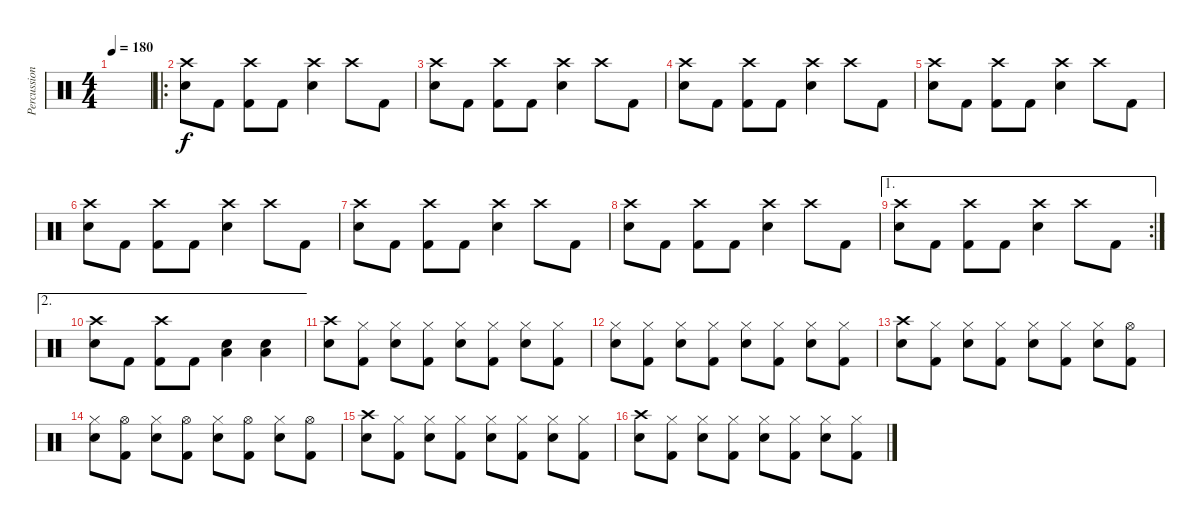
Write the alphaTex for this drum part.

\track ("Percussions" "Percussion") {instrument percussion}
\staff {score}
\articulation defaults
\ts (4 4)
\tempo 180
\clef neutral
\ks c
|
\ro
("Crash high (hit)" "Snare (hit) 2").8 "Kick (hit) 2".8 ("Crash high (hit)" "Kick (hit) 2").8 "Kick (hit) 2".8 ("Crash high (hit)" "Snare (hit) 2").4 "Crash high (hit)".8 "Kick (hit) 2".8 |
("Crash high (hit)" "Snare (hit) 2").8 "Kick (hit) 2".8 ("Crash high (hit)" "Kick (hit) 2").8 "Kick (hit) 2".8 ("Crash high (hit)" "Snare (hit) 2").4 "Crash high (hit)".8 "Kick (hit) 2".8 |
("Crash high (hit)" "Snare (hit) 2").8 "Kick (hit) 2".8 ("Crash high (hit)" "Kick (hit) 2").8 "Kick (hit) 2".8 ("Crash high (hit)" "Snare (hit) 2").4 "Crash high (hit)".8 "Kick (hit) 2".8 |
("Crash high (hit)" "Snare (hit) 2").8 "Kick (hit) 2".8 ("Crash high (hit)" "Kick (hit) 2").8 "Kick (hit) 2".8 ("Crash high (hit)" "Snare (hit) 2").4 "Crash high (hit)".8 "Kick (hit) 2".8 |
("Crash high (hit)" "Snare (hit) 2").8 "Kick (hit) 2".8 ("Crash high (hit)" "Kick (hit) 2").8 "Kick (hit) 2".8 ("Crash high (hit)" "Snare (hit) 2").4 "Crash high (hit)".8 "Kick (hit) 2".8 |
("Crash high (hit)" "Snare (hit) 2").8 "Kick (hit) 2".8 ("Crash high (hit)" "Kick (hit) 2").8 "Kick (hit) 2".8 ("Crash high (hit)" "Snare (hit) 2").4 "Crash high (hit)".8 "Kick (hit) 2".8 |
("Crash high (hit)" "Snare (hit) 2").8 "Kick (hit) 2".8 ("Crash high (hit)" "Kick (hit) 2").8 "Kick (hit) 2".8 ("Crash high (hit)" "Snare (hit) 2").4 "Crash high (hit)".8 "Kick (hit) 2".8 |
\ae 1
\rc 2
("Crash high (hit)" "Snare (hit) 2").8 "Kick (hit) 2".8 ("Crash high (hit)" "Kick (hit) 2").8 "Kick (hit) 2".8 ("Crash high (hit)" "Snare (hit) 2").4 "Crash high (hit)".8 "Kick (hit) 2".8 |
\ae 2
("Crash high (hit)" "Snare (hit) 2").8 "Kick (hit) 2".8 ("Crash high (hit)" "Kick (hit) 2").8 "Kick (hit) 2".8 ("Low Floor Tom (hit)" "Snare (hit) 2").4 ("Low Floor Tom (hit)" "Snare (hit) 2").4 |
("Crash high (hit)" "Snare (hit) 2").8 ("Hi-Hat (closed)" "Kick (hit) 2").8 ("Hi-Hat (closed)" "Snare (hit) 2").8 ("Hi-Hat (closed)" "Kick (hit) 2").8 ("Hi-Hat (closed)" "Snare (hit) 2").8 ("Hi-Hat (closed)" "Kick (hit) 2").8 ("Hi-Hat (closed)" "Snare (hit) 2").8 ("Hi-Hat (closed)" "Kick (hit) 2").8 |
("Hi-Hat (closed)" "Snare (hit) 2").8 ("Hi-Hat (closed)" "Kick (hit) 2").8 ("Hi-Hat (closed)" "Snare (hit) 2").8 ("Hi-Hat (closed)" "Kick (hit) 2").8 ("Hi-Hat (closed)" "Snare (hit) 2").8 ("Hi-Hat (closed)" "Kick (hit) 2").8 ("Hi-Hat (closed)" "Snare (hit) 2").8 ("Hi-Hat (closed)" "Kick (hit) 2").8 |
("Crash high (hit)" "Snare (hit) 2").8 ("Hi-Hat (closed)" "Kick (hit) 2").8 ("Hi-Hat (closed)" "Snare (hit) 2").8 ("Hi-Hat (closed)" "Kick (hit) 2").8 ("Hi-Hat (closed)" "Snare (hit) 2").8 ("Hi-Hat (closed)" "Kick (hit) 2").8 ("Hi-Hat (closed)" "Snare (hit) 2").8 ("Hi-Hat (open)" "Kick (hit) 2").8 |
("Hi-Hat (closed)" "Snare (hit) 2").8 ("Hi-Hat (open)" "Kick (hit) 2").8 ("Hi-Hat (closed)" "Snare (hit) 2").8 ("Hi-Hat (open)" "Kick (hit) 2").8 ("Hi-Hat (closed)" "Snare (hit) 2").8 ("Hi-Hat (open)" "Kick (hit) 2").8 ("Hi-Hat (closed)" "Snare (hit) 2").8 ("Hi-Hat (open)" "Kick (hit) 2").8 |
("Crash high (hit)" "Snare (hit) 2").8 ("Hi-Hat (closed)" "Kick (hit) 2").8 ("Hi-Hat (closed)" "Snare (hit) 2").8 ("Hi-Hat (closed)" "Kick (hit) 2").8 ("Hi-Hat (closed)" "Snare (hit) 2").8 ("Hi-Hat (closed)" "Kick (hit) 2").8 ("Hi-Hat (closed)" "Snare (hit) 2").8 ("Hi-Hat (closed)" "Kick (hit) 2").8 |
("Crash high (hit)" "Snare (hit) 2").8 ("Hi-Hat (closed)" "Kick (hit) 2").8 ("Hi-Hat (closed)" "Snare (hit) 2").8 ("Hi-Hat (closed)" "Kick (hit) 2").8 ("Hi-Hat (closed)" "Snare (hit) 2").8 ("Hi-Hat (closed)" "Kick (hit) 2").8 ("Hi-Hat (closed)" "Snare (hit) 2").8 ("Hi-Hat (closed)" "Kick (hit) 2").8
